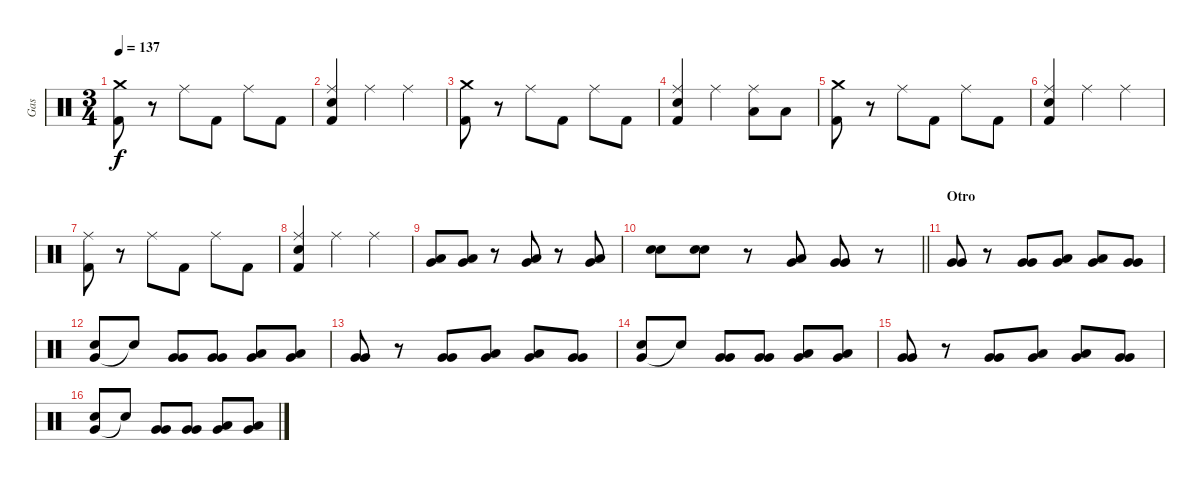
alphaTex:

\track ("Gas" "Gas") {instrument percussion}
\staff {score}
\articulation defaults
\ts (3 4)
\tempo 137
\clef neutral
\ks c
("Crash medium (hit)" "Kick (hit) 2").8{dy f} r.8 "Ride (middle)".8 "Kick (hit) 2".8 "Ride (middle)".8 "Kick (hit) 2".8 |
("Ride (middle)" "Snare (hit) 2" "Kick (hit) 2").4 "Ride (middle)".4 "Ride (middle)".4 |
("Crash medium (hit)" "Kick (hit) 2").8 r.8 "Ride (middle)".8 "Kick (hit) 2".8 "Ride (middle)".8 "Kick (hit) 2".8 |
("Ride (middle)" "Snare (hit) 2" "Kick (hit) 2").4 "Ride (middle)".4 ("Ride (middle)" "Low Tom (hit)").8 "Low Tom (hit)".8 |
("Crash medium (hit)" "Kick (hit) 2").8 r.8 "Ride (middle)".8 "Kick (hit) 2".8 "Ride (middle)".8 "Kick (hit) 2".8 |
("Ride (middle)" "Snare (hit) 2" "Kick (hit) 2").4 "Ride (middle)".4 "Ride (middle)".4 |
("Ride (middle)" "Kick (hit) 2").8 r.8 "Ride (middle)".8 "Kick (hit) 2".8 "Ride (middle)".8 "Kick (hit) 2".8 |
("Ride (middle)" "Snare (hit) 2" "Kick (hit) 2").4 "Ride (middle)".4 "Ride (middle)".4 |
("Low Tom (hit)" "Very Low Tom (hit)").8 ("Low Tom (hit)" "Very Low Tom (hit)").8 r.8 ("Low Tom (hit)" "Very Low Tom (hit)").8 r.8 ("Low Tom (hit)" "Very Low Tom (hit)").8 |
\barLineRight lightlight
("Snare (hit) 2" "Snare (hit) 2").8{bd 60} ("Snare (hit) 2" "Snare (hit) 2").8{bd 60} r.8 ("Low Tom (hit)" "Very Low Tom (hit)").8{bd 60} ("Very Low Tom (hit)" "Very Low Tom (hit)").8{bd 60} r.8 |
\section ("" "Otro")
("Very Low Tom (hit)" "Very Low Tom (hit)").8 r.8 ("Very Low Tom (hit)" "Very Low Tom (hit)").8 ("Low Tom (hit)" "Very Low Tom (hit)").8 ("Low Tom (hit)" "Very Low Tom (hit)").8 ("Very Low Tom (hit)" "Very Low Tom (hit)").8 |
("Very Low Tom (hit)" "Snare (hit) 2").8 "Snare (hit)"{t}.8 ("Very Low Tom (hit)" "Very Low Tom (hit)").8 ("Very Low Tom (hit)" "Very Low Tom (hit)").8 ("Very Low Tom (hit)" "Low Tom (hit)").8 ("Very Low Tom (hit)" "Low Tom (hit)").8 |
("Very Low Tom (hit)" "Very Low Tom (hit)").8 r.8 ("Very Low Tom (hit)" "Very Low Tom (hit)").8 ("Low Tom (hit)" "Very Low Tom (hit)").8 ("Low Tom (hit)" "Very Low Tom (hit)").8 ("Very Low Tom (hit)" "Very Low Tom (hit)").8 |
("Very Low Tom (hit)" "Snare (hit) 2").8 "Snare (hit)"{t}.8 ("Very Low Tom (hit)" "Very Low Tom (hit)").8 ("Very Low Tom (hit)" "Very Low Tom (hit)").8 ("Very Low Tom (hit)" "Low Tom (hit)").8 ("Very Low Tom (hit)" "Low Tom (hit)").8 |
("Very Low Tom (hit)" "Very Low Tom (hit)").8 r.8 ("Very Low Tom (hit)" "Very Low Tom (hit)").8 ("Low Tom (hit)" "Very Low Tom (hit)").8 ("Low Tom (hit)" "Very Low Tom (hit)").8 ("Very Low Tom (hit)" "Very Low Tom (hit)").8 |
("Very Low Tom (hit)" "Snare (hit) 2").8 "Snare (hit)"{t}.8 ("Very Low Tom (hit)" "Very Low Tom (hit)").8 ("Very Low Tom (hit)" "Very Low Tom (hit)").8 ("Very Low Tom (hit)" "Low Tom (hit)").8 ("Very Low Tom (hit)" "Low Tom (hit)").8
